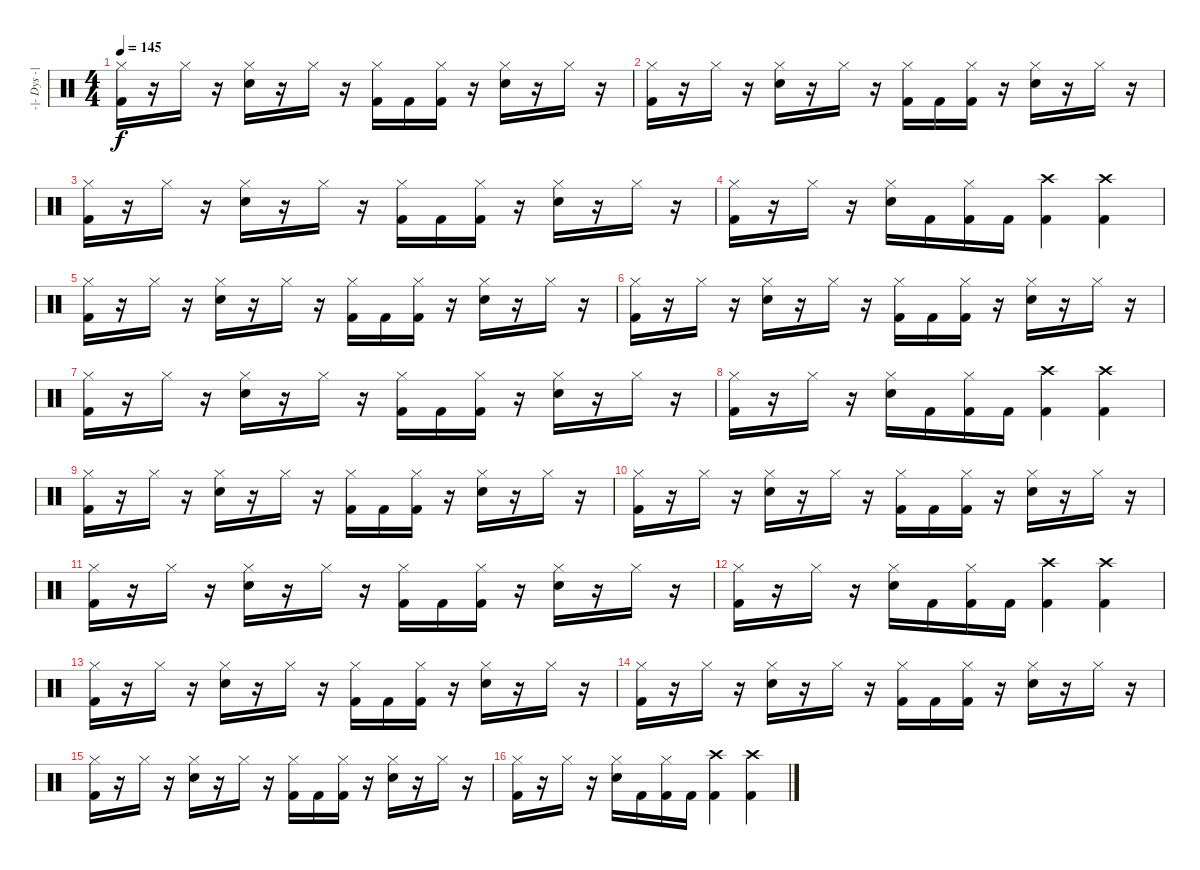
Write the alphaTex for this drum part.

\track ("-|- Dys -|-" "-|- Dys -|") {instrument percussion}
\staff {score}
\articulation defaults
\ts (4 4)
\tempo 145
\clef neutral
\ks c
("Hi-Hat (closed)" "Kick (hit) 2").16{dy f} r.16 "Hi-Hat (closed)".16 r.16 ("Hi-Hat (closed)" "Snare (hit) 2").16 r.16 "Hi-Hat (closed)".16 r.16 ("Hi-Hat (closed)" "Kick (hit) 2").16 "Kick (hit) 2".16 ("Hi-Hat (closed)" "Kick (hit) 2").16 r.16 ("Hi-Hat (closed)" "Snare (hit) 2").16 r.16 "Hi-Hat (closed)".16 r.16 |
("Hi-Hat (closed)" "Kick (hit) 2").16 r.16 "Hi-Hat (closed)".16 r.16 ("Hi-Hat (closed)" "Snare (hit) 2").16 r.16 "Hi-Hat (closed)".16 r.16 ("Hi-Hat (closed)" "Kick (hit) 2").16 "Kick (hit) 2".16 ("Hi-Hat (closed)" "Kick (hit) 2").16 r.16 ("Hi-Hat (closed)" "Snare (hit) 2").16 r.16 "Hi-Hat (closed)".16 r.16 |
("Hi-Hat (closed)" "Kick (hit) 2").16 r.16 "Hi-Hat (closed)".16 r.16 ("Hi-Hat (closed)" "Snare (hit) 2").16 r.16 "Hi-Hat (closed)".16 r.16 ("Hi-Hat (closed)" "Kick (hit) 2").16 "Kick (hit) 2".16 ("Hi-Hat (closed)" "Kick (hit) 2").16 r.16 ("Hi-Hat (closed)" "Snare (hit) 2").16 r.16 "Hi-Hat (closed)".16 r.16 |
("Hi-Hat (closed)" "Kick (hit) 2").16 r.16 "Hi-Hat (closed)".16 r.16 ("Hi-Hat (closed)" "Snare (hit) 2").16 "Kick (hit) 2".16 ("Hi-Hat (closed)" "Kick (hit) 2").16 "Kick (hit) 2".16 ("Crash high (hit)" "Kick (hit) 2").4 ("Crash high (hit)" "Kick (hit) 2").4 |
("Hi-Hat (closed)" "Kick (hit) 2").16 r.16 "Hi-Hat (closed)".16 r.16 ("Hi-Hat (closed)" "Snare (hit) 2").16 r.16 "Hi-Hat (closed)".16 r.16 ("Hi-Hat (closed)" "Kick (hit) 2").16 "Kick (hit) 2".16 ("Hi-Hat (closed)" "Kick (hit) 2").16 r.16 ("Hi-Hat (closed)" "Snare (hit) 2").16 r.16 "Hi-Hat (closed)".16 r.16 |
("Hi-Hat (closed)" "Kick (hit) 2").16 r.16 "Hi-Hat (closed)".16 r.16 ("Hi-Hat (closed)" "Snare (hit) 2").16 r.16 "Hi-Hat (closed)".16 r.16 ("Hi-Hat (closed)" "Kick (hit) 2").16 "Kick (hit) 2".16 ("Hi-Hat (closed)" "Kick (hit) 2").16 r.16 ("Hi-Hat (closed)" "Snare (hit) 2").16 r.16 "Hi-Hat (closed)".16 r.16 |
("Hi-Hat (closed)" "Kick (hit) 2").16 r.16 "Hi-Hat (closed)".16 r.16 ("Hi-Hat (closed)" "Snare (hit) 2").16 r.16 "Hi-Hat (closed)".16 r.16 ("Hi-Hat (closed)" "Kick (hit) 2").16 "Kick (hit) 2".16 ("Hi-Hat (closed)" "Kick (hit) 2").16 r.16 ("Hi-Hat (closed)" "Snare (hit) 2").16 r.16 "Hi-Hat (closed)".16 r.16 |
("Hi-Hat (closed)" "Kick (hit) 2").16 r.16 "Hi-Hat (closed)".16 r.16 ("Hi-Hat (closed)" "Snare (hit) 2").16 "Kick (hit) 2".16 ("Hi-Hat (closed)" "Kick (hit) 2").16 "Kick (hit) 2".16 ("Crash high (hit)" "Kick (hit) 2").4 ("Crash high (hit)" "Kick (hit) 2").4 |
("Hi-Hat (closed)" "Kick (hit) 2").16 r.16 "Hi-Hat (closed)".16 r.16 ("Hi-Hat (closed)" "Snare (hit) 2").16 r.16 "Hi-Hat (closed)".16 r.16 ("Hi-Hat (closed)" "Kick (hit) 2").16 "Kick (hit) 2".16 ("Hi-Hat (closed)" "Kick (hit) 2").16 r.16 ("Hi-Hat (closed)" "Snare (hit) 2").16 r.16 "Hi-Hat (closed)".16 r.16 |
("Hi-Hat (closed)" "Kick (hit) 2").16 r.16 "Hi-Hat (closed)".16 r.16 ("Hi-Hat (closed)" "Snare (hit) 2").16 r.16 "Hi-Hat (closed)".16 r.16 ("Hi-Hat (closed)" "Kick (hit) 2").16 "Kick (hit) 2".16 ("Hi-Hat (closed)" "Kick (hit) 2").16 r.16 ("Hi-Hat (closed)" "Snare (hit) 2").16 r.16 "Hi-Hat (closed)".16 r.16 |
("Hi-Hat (closed)" "Kick (hit) 2").16 r.16 "Hi-Hat (closed)".16 r.16 ("Hi-Hat (closed)" "Snare (hit) 2").16 r.16 "Hi-Hat (closed)".16 r.16 ("Hi-Hat (closed)" "Kick (hit) 2").16 "Kick (hit) 2".16 ("Hi-Hat (closed)" "Kick (hit) 2").16 r.16 ("Hi-Hat (closed)" "Snare (hit) 2").16 r.16 "Hi-Hat (closed)".16 r.16 |
("Hi-Hat (closed)" "Kick (hit) 2").16 r.16 "Hi-Hat (closed)".16 r.16 ("Hi-Hat (closed)" "Snare (hit) 2").16 "Kick (hit) 2".16 ("Hi-Hat (closed)" "Kick (hit) 2").16 "Kick (hit) 2".16 ("Crash high (hit)" "Kick (hit) 2").4 ("Crash high (hit)" "Kick (hit) 2").4 |
("Hi-Hat (closed)" "Kick (hit) 2").16 r.16 "Hi-Hat (closed)".16 r.16 ("Hi-Hat (closed)" "Snare (hit) 2").16 r.16 "Hi-Hat (closed)".16 r.16 ("Hi-Hat (closed)" "Kick (hit) 2").16 "Kick (hit) 2".16 ("Hi-Hat (closed)" "Kick (hit) 2").16 r.16 ("Hi-Hat (closed)" "Snare (hit) 2").16 r.16 "Hi-Hat (closed)".16 r.16 |
("Hi-Hat (closed)" "Kick (hit) 2").16 r.16 "Hi-Hat (closed)".16 r.16 ("Hi-Hat (closed)" "Snare (hit) 2").16 r.16 "Hi-Hat (closed)".16 r.16 ("Hi-Hat (closed)" "Kick (hit) 2").16 "Kick (hit) 2".16 ("Hi-Hat (closed)" "Kick (hit) 2").16 r.16 ("Hi-Hat (closed)" "Snare (hit) 2").16 r.16 "Hi-Hat (closed)".16 r.16 |
("Hi-Hat (closed)" "Kick (hit) 2").16 r.16 "Hi-Hat (closed)".16 r.16 ("Hi-Hat (closed)" "Snare (hit) 2").16 r.16 "Hi-Hat (closed)".16 r.16 ("Hi-Hat (closed)" "Kick (hit) 2").16 "Kick (hit) 2".16 ("Hi-Hat (closed)" "Kick (hit) 2").16 r.16 ("Hi-Hat (closed)" "Snare (hit) 2").16 r.16 "Hi-Hat (closed)".16 r.16 |
("Hi-Hat (closed)" "Kick (hit) 2").16 r.16 "Hi-Hat (closed)".16 r.16 ("Hi-Hat (closed)" "Snare (hit) 2").16 "Kick (hit) 2".16 ("Hi-Hat (closed)" "Kick (hit) 2").16 "Kick (hit) 2".16 ("Crash high (hit)" "Kick (hit) 2").4 ("Crash high (hit)" "Kick (hit) 2").4
